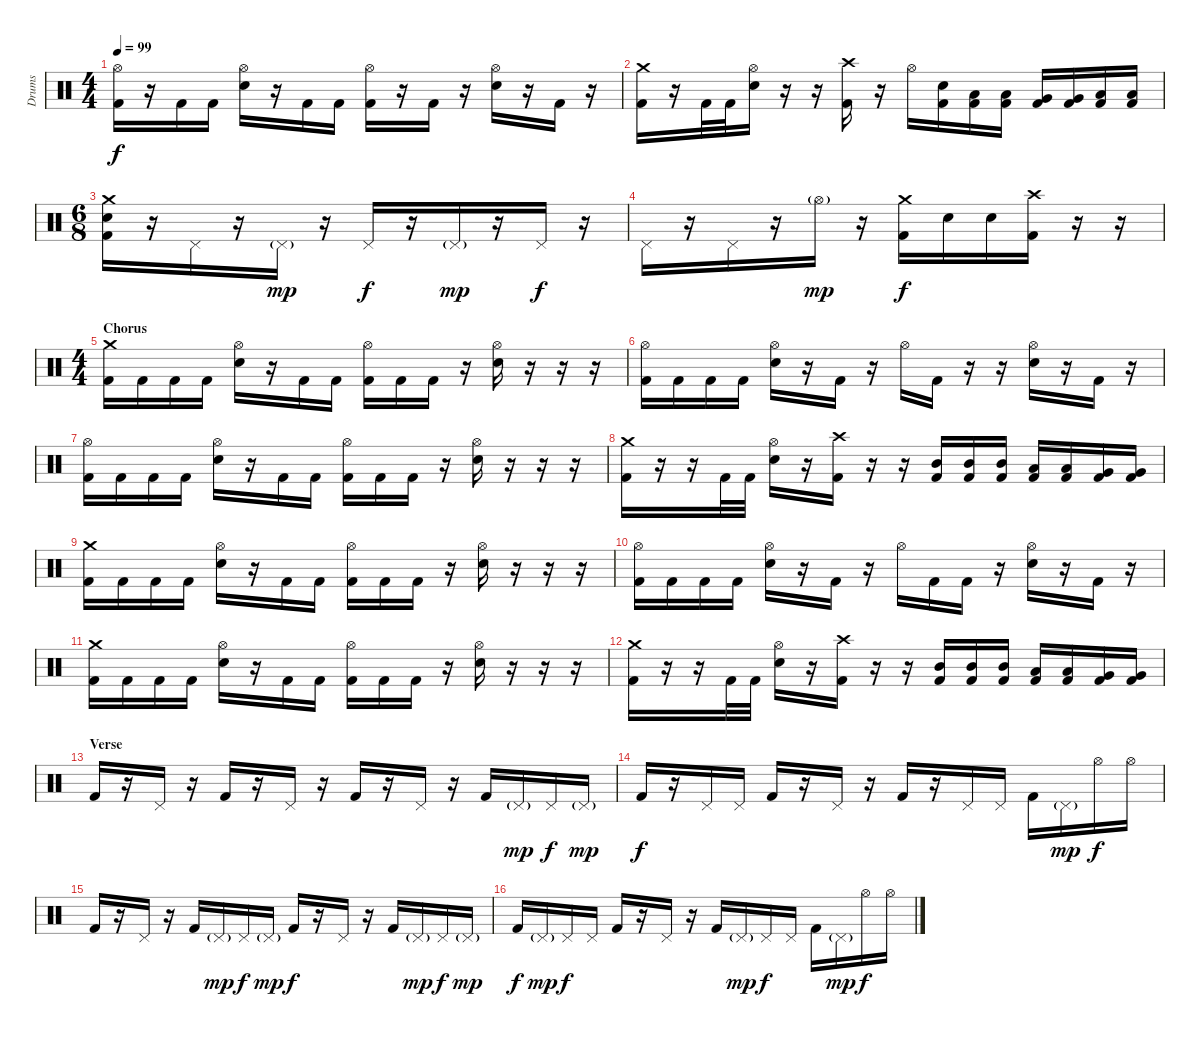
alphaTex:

\track ("Drums" "Drums") {instrument percussion}
\staff {score}
\articulation defaults
\ts (4 4)
\tempo 99
\clef neutral
\ks c
("Hi-Hat (open)" "Kick (hit) 2").16{dy f} r.16 "Kick (hit) 2".16 "Kick (hit) 2".16 ("Hi-Hat (open)" "Electric Snare (hit)").16 r.16 "Kick (hit) 2".16 "Kick (hit) 2".16 ("Hi-Hat (open)" "Kick (hit) 2").16 r.16 "Kick (hit) 2".16 r.16 ("Hi-Hat (open)" "Electric Snare (hit)").16 r.16 "Kick (hit) 2".16 r.16 |
("Crash medium (hit)" "Kick (hit) 2").16 r.16 "Kick (hit) 2".32 "Kick (hit) 2".32 ("Hi-Hat (open)" "Electric Snare (hit)").16 r.16 r.16 ("Crash high (hit)" "Kick (hit) 2").16 r.16 "Hi-Hat (open)".16 ("Electric Snare (hit)" "Kick (hit) 2").16 ("Low Tom (hit)" "Kick (hit) 2").16 ("Low Tom (hit)" "Kick (hit) 2").16 ("Very Low Tom (hit)" "Kick (hit) 2").16 ("Very Low Tom (hit)" "Kick (hit) 2").16 ("Low Floor Tom (hit)" "Kick (hit) 2").16 ("Low Floor Tom (hit)" "Kick (hit) 2").16 |
\ts (6 8)
\section ("" "")
("Crash medium (hit)" "Electric Snare (hit)" "Kick (hit) 2").16 r.16 "Pedal Hi-Hat (hit)".16 r.16 "Pedal Hi-Hat (hit)"{g}.16{dy mp} r.16 "Pedal Hi-Hat (hit)".16{dy f} r.16 "Pedal Hi-Hat (hit)"{g}.16{dy mp} r.16 "Pedal Hi-Hat (hit)".16{dy f} r.16 |
"Pedal Hi-Hat (hit)".16 r.16 "Pedal Hi-Hat (hit)".16 r.16 "Hi-Hat (open)"{g}.16{dy mp} r.16 ("Crash medium (hit)" "Kick (hit) 2").16{dy f} "Electric Snare (hit)".16 "Electric Snare (hit)".16 ("Crash high (hit)" "Kick (hit) 2").16 r.16 r.16 |
\ts (4 4)
\section ("" "Chorus")
("Crash medium (hit)" "Kick (hit) 2").16 "Kick (hit) 2".16 "Kick (hit) 2".16 "Kick (hit) 2".16 ("Hi-Hat (open)" "Electric Snare (hit)").16 r.16 "Kick (hit) 2".16 "Kick (hit) 2".16 ("Hi-Hat (open)" "Kick (hit) 2").16 "Kick (hit) 2".16 "Kick (hit) 2".16 r.16 ("Hi-Hat (open)" "Electric Snare (hit)").16 r.16 r.16 r.16 |
("Hi-Hat (open)" "Kick (hit) 2").16 "Kick (hit) 2".16 "Kick (hit) 2".16 "Kick (hit) 2".16 ("Hi-Hat (open)" "Electric Snare (hit)").16 r.16 "Kick (hit) 2".16 r.16 "Hi-Hat (open)".16 "Kick (hit) 2".16 r.16 r.16 ("Hi-Hat (open)" "Electric Snare (hit)").16 r.16 "Kick (hit) 2".16 r.16 |
("Hi-Hat (open)" "Kick (hit) 2").16 "Kick (hit) 2".16 "Kick (hit) 2".16 "Kick (hit) 2".16 ("Hi-Hat (open)" "Electric Snare (hit)").16 r.16 "Kick (hit) 2".16 "Kick (hit) 2".16 ("Hi-Hat (open)" "Kick (hit) 2").16 "Kick (hit) 2".16 "Kick (hit) 2".16 r.16 ("Hi-Hat (open)" "Electric Snare (hit)").16 r.16 r.16 r.16 |
("Crash medium (hit)" "Kick (hit) 2").16 r.16 r.16 "Kick (hit) 2".32 "Kick (hit) 2".32 ("Hi-Hat (open)" "Electric Snare (hit)").16 r.16 ("Crash high (hit)" "Kick (hit) 2").16 r.16 r.16 ("Mid Tom (hit)" "Kick (hit) 2").16 ("Mid Tom (hit)" "Kick (hit) 2").16 ("Mid Tom (hit)" "Kick (hit) 2").16 ("Low Tom (hit)" "Kick (hit) 2").16 ("Low Tom (hit)" "Kick (hit) 2").16 ("Very Low Tom (hit)" "Kick (hit) 2").16 ("Very Low Tom (hit)" "Kick (hit) 2").16 |
("Crash medium (hit)" "Kick (hit) 2").16 "Kick (hit) 2".16 "Kick (hit) 2".16 "Kick (hit) 2".16 ("Hi-Hat (open)" "Electric Snare (hit)").16 r.16 "Kick (hit) 2".16 "Kick (hit) 2".16 ("Hi-Hat (open)" "Kick (hit) 2").16 "Kick (hit) 2".16 "Kick (hit) 2".16 r.16 ("Hi-Hat (open)" "Electric Snare (hit)").16 r.16 r.16 r.16 |
("Hi-Hat (open)" "Kick (hit) 2").16 "Kick (hit) 2".16 "Kick (hit) 2".16 "Kick (hit) 2".16 ("Hi-Hat (open)" "Electric Snare (hit)").16 r.16 "Kick (hit) 2".16 r.16 "Hi-Hat (open)".16 "Kick (hit) 2".16 "Kick (hit) 2".16 r.16 ("Hi-Hat (open)" "Electric Snare (hit)").16 r.16 "Kick (hit) 2".16 r.16 |
("Crash medium (hit)" "Kick (hit) 2").16 "Kick (hit) 2".16 "Kick (hit) 2".16 "Kick (hit) 2".16 ("Hi-Hat (open)" "Electric Snare (hit)").16 r.16 "Kick (hit) 2".16 "Kick (hit) 2".16 ("Hi-Hat (open)" "Kick (hit) 2").16 "Kick (hit) 2".16 "Kick (hit) 2".16 r.16 ("Hi-Hat (open)" "Electric Snare (hit)").16 r.16 r.16 r.16 |
("Crash medium (hit)" "Kick (hit) 2").16 r.16 r.16 "Kick (hit) 2".32 "Kick (hit) 2".32 ("Hi-Hat (open)" "Electric Snare (hit)").16 r.16 ("Crash high (hit)" "Kick (hit) 2").16 r.16 r.16 ("Mid Tom (hit)" "Kick (hit) 2").16 ("Mid Tom (hit)" "Kick (hit) 2").16 ("Mid Tom (hit)" "Kick (hit) 2").16 ("Low Tom (hit)" "Kick (hit) 2").16 ("Low Tom (hit)" "Kick (hit) 2").16 ("Very Low Tom (hit)" "Kick (hit) 2").16 ("Very Low Tom (hit)" "Kick (hit) 2").16 |
\section ("" "Verse")
"Kick (hit) 2".16 r.16 "Pedal Hi-Hat (hit)".16 r.16 "Kick (hit) 2".16 r.16 "Pedal Hi-Hat (hit)".16 r.16 "Kick (hit) 2".16 r.16 "Pedal Hi-Hat (hit)".16 r.16 "Kick (hit) 2".16 "Pedal Hi-Hat (hit)"{g}.16{dy mp} "Pedal Hi-Hat (hit)".16{dy f} "Pedal Hi-Hat (hit)"{g}.16{dy mp} |
"Kick (hit) 2".16{dy f} r.16 "Pedal Hi-Hat (hit)".16 "Pedal Hi-Hat (hit)".16 "Kick (hit) 2".16 r.16 "Pedal Hi-Hat (hit)".16 r.16 "Kick (hit) 2".16 r.16 "Pedal Hi-Hat (hit)".16 "Pedal Hi-Hat (hit)".16 "Kick (hit) 2".16 "Pedal Hi-Hat (hit)"{g}.16{dy mp} "Hi-Hat (open)".16{dy f} "Hi-Hat (open)".16 |
"Kick (hit) 2".16 r.16 "Pedal Hi-Hat (hit)".16 r.16 "Kick (hit) 2".16 "Pedal Hi-Hat (hit)"{g}.16{dy mp} "Pedal Hi-Hat (hit)".16{dy f} "Pedal Hi-Hat (hit)"{g}.16{dy mp} "Kick (hit) 2".16{dy f} r.16 "Pedal Hi-Hat (hit)".16 r.16 "Kick (hit) 2".16 "Pedal Hi-Hat (hit)"{g}.16{dy mp} "Pedal Hi-Hat (hit)".16{dy f} "Pedal Hi-Hat (hit)"{g}.16{dy mp} |
"Kick (hit) 2".16{dy f} "Pedal Hi-Hat (hit)"{g}.16{dy mp} "Pedal Hi-Hat (hit)".16{dy f} "Pedal Hi-Hat (hit)".16 "Kick (hit) 2".16 r.16 "Pedal Hi-Hat (hit)".16 r.16 "Kick (hit) 2".16 "Pedal Hi-Hat (hit)"{g}.16{dy mp} "Pedal Hi-Hat (hit)".16{dy f} "Pedal Hi-Hat (hit)".16 "Kick (hit) 2".16 "Pedal Hi-Hat (hit)"{g}.16{dy mp} "Hi-Hat (open)".16{dy f} "Hi-Hat (open)".16
